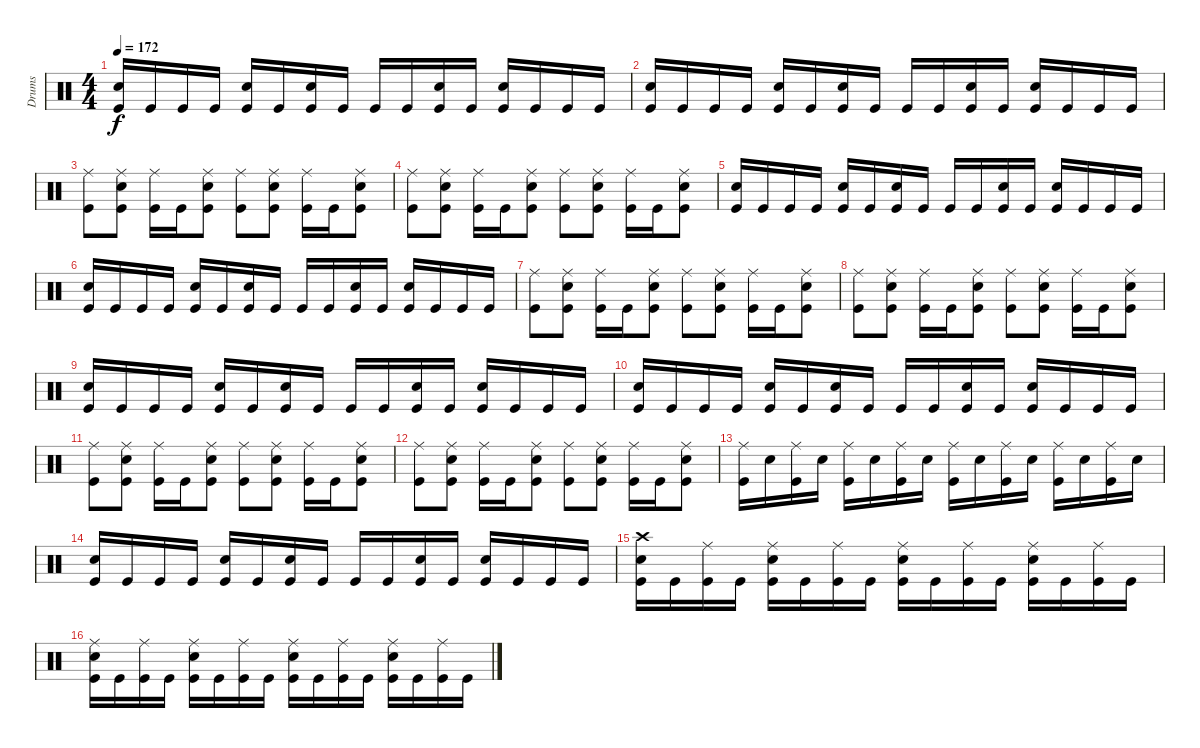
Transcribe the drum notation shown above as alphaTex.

\track ("Drums" "Drums") {instrument percussion}
\staff {score}
\articulation defaults
\ts (4 4)
\tempo 172
\clef neutral
\ks c
("Kick (hit)" "Snare (hit) 2").16{dy f} "Kick (hit)".16 "Kick (hit)".16 "Kick (hit)".16 ("Kick (hit)" "Snare (hit) 2").16 "Kick (hit)".16 ("Kick (hit)" "Snare (hit) 2").16 "Kick (hit)".16 "Kick (hit)".16 "Kick (hit)".16 ("Snare (hit) 2" "Kick (hit)").16 "Kick (hit)".16 ("Kick (hit)" "Snare (hit) 2").16 "Kick (hit)".16 "Kick (hit)".16 "Kick (hit)".16 |
("Kick (hit)" "Snare (hit) 2").16 "Kick (hit)".16 "Kick (hit)".16 "Kick (hit)".16 ("Kick (hit)" "Snare (hit) 2").16 "Kick (hit)".16 ("Kick (hit)" "Snare (hit) 2").16 "Kick (hit)".16 "Kick (hit)".16 "Kick (hit)".16 ("Snare (hit) 2" "Kick (hit)").16 "Kick (hit)".16 ("Kick (hit)" "Snare (hit) 2").16 "Kick (hit)".16 "Kick (hit)".16 "Kick (hit)".16 |
("Kick (hit)" "Ride (middle)").8 ("Kick (hit)" "Snare (hit) 2" "Ride (middle)").8 ("Kick (hit)" "Ride (middle)").16 "Kick (hit)".16 ("Kick (hit)" "Snare (hit) 2" "Ride (middle)").8 ("Kick (hit)" "Ride (middle)").8 ("Kick (hit)" "Snare (hit) 2" "Ride (middle)").8 ("Kick (hit)" "Ride (middle)").16 "Kick (hit)".16 ("Kick (hit)" "Snare (hit) 2" "Ride (middle)").8 |
("Kick (hit)" "Ride (middle)").8 ("Kick (hit)" "Snare (hit) 2" "Ride (middle)").8 ("Kick (hit)" "Ride (middle)").16 "Kick (hit)".16 ("Kick (hit)" "Snare (hit) 2" "Ride (middle)").8 ("Kick (hit)" "Ride (middle)").8 ("Kick (hit)" "Snare (hit) 2" "Ride (middle)").8 ("Kick (hit)" "Ride (middle)").16 "Kick (hit)".16 ("Kick (hit)" "Snare (hit) 2" "Ride (middle)").8 |
("Kick (hit)" "Snare (hit) 2").16 "Kick (hit)".16 "Kick (hit)".16 "Kick (hit)".16 ("Kick (hit)" "Snare (hit) 2").16 "Kick (hit)".16 ("Kick (hit)" "Snare (hit) 2").16 "Kick (hit)".16 "Kick (hit)".16 "Kick (hit)".16 ("Snare (hit) 2" "Kick (hit)").16 "Kick (hit)".16 ("Kick (hit)" "Snare (hit) 2").16 "Kick (hit)".16 "Kick (hit)".16 "Kick (hit)".16 |
("Kick (hit)" "Snare (hit) 2").16 "Kick (hit)".16 "Kick (hit)".16 "Kick (hit)".16 ("Kick (hit)" "Snare (hit) 2").16 "Kick (hit)".16 ("Kick (hit)" "Snare (hit) 2").16 "Kick (hit)".16 "Kick (hit)".16 "Kick (hit)".16 ("Snare (hit) 2" "Kick (hit)").16 "Kick (hit)".16 ("Kick (hit)" "Snare (hit) 2").16 "Kick (hit)".16 "Kick (hit)".16 "Kick (hit)".16 |
("Kick (hit)" "Ride (middle)").8 ("Kick (hit)" "Snare (hit) 2" "Ride (middle)").8 ("Kick (hit)" "Ride (middle)").16 "Kick (hit)".16 ("Kick (hit)" "Snare (hit) 2" "Ride (middle)").8 ("Kick (hit)" "Ride (middle)").8 ("Kick (hit)" "Snare (hit) 2" "Ride (middle)").8 ("Kick (hit)" "Ride (middle)").16 "Kick (hit)".16 ("Kick (hit)" "Snare (hit) 2" "Ride (middle)").8 |
("Kick (hit)" "Ride (middle)").8 ("Kick (hit)" "Snare (hit) 2" "Ride (middle)").8 ("Kick (hit)" "Ride (middle)").16 "Kick (hit)".16 ("Kick (hit)" "Snare (hit) 2" "Ride (middle)").8 ("Kick (hit)" "Ride (middle)").8 ("Kick (hit)" "Snare (hit) 2" "Ride (middle)").8 ("Kick (hit)" "Ride (middle)").16 "Kick (hit)".16 ("Kick (hit)" "Snare (hit) 2" "Ride (middle)").8 |
("Kick (hit)" "Snare (hit) 2").16 "Kick (hit)".16 "Kick (hit)".16 "Kick (hit)".16 ("Kick (hit)" "Snare (hit) 2").16 "Kick (hit)".16 ("Kick (hit)" "Snare (hit) 2").16 "Kick (hit)".16 "Kick (hit)".16 "Kick (hit)".16 ("Snare (hit) 2" "Kick (hit)").16 "Kick (hit)".16 ("Kick (hit)" "Snare (hit) 2").16 "Kick (hit)".16 "Kick (hit)".16 "Kick (hit)".16 |
("Kick (hit)" "Snare (hit) 2").16 "Kick (hit)".16 "Kick (hit)".16 "Kick (hit)".16 ("Kick (hit)" "Snare (hit) 2").16 "Kick (hit)".16 ("Kick (hit)" "Snare (hit) 2").16 "Kick (hit)".16 "Kick (hit)".16 "Kick (hit)".16 ("Snare (hit) 2" "Kick (hit)").16 "Kick (hit)".16 ("Kick (hit)" "Snare (hit) 2").16 "Kick (hit)".16 "Kick (hit)".16 "Kick (hit)".16 |
("Kick (hit)" "Ride (middle)").8 ("Kick (hit)" "Snare (hit) 2" "Ride (middle)").8 ("Kick (hit)" "Ride (middle)").16 "Kick (hit)".16 ("Kick (hit)" "Snare (hit) 2" "Ride (middle)").8 ("Kick (hit)" "Ride (middle)").8 ("Kick (hit)" "Snare (hit) 2" "Ride (middle)").8 ("Kick (hit)" "Ride (middle)").16 "Kick (hit)".16 ("Kick (hit)" "Snare (hit) 2" "Ride (middle)").8 |
("Kick (hit)" "Ride (middle)").8 ("Kick (hit)" "Snare (hit) 2" "Ride (middle)").8 ("Kick (hit)" "Ride (middle)").16 "Kick (hit)".16 ("Kick (hit)" "Snare (hit) 2" "Ride (middle)").8 ("Kick (hit)" "Ride (middle)").8 ("Kick (hit)" "Snare (hit) 2" "Ride (middle)").8 ("Kick (hit)" "Ride (middle)").16 "Kick (hit)".16 ("Kick (hit)" "Snare (hit) 2" "Ride (middle)").8 |
("Kick (hit)" "Ride (middle)").16 "Snare (hit) 2".16 ("Kick (hit)" "Ride (middle)").16 "Snare (hit) 2".16 ("Kick (hit)" "Ride (middle)").16 "Snare (hit) 2".16 ("Kick (hit)" "Ride (middle)").16 "Snare (hit) 2".16 ("Kick (hit)" "Ride (middle)").16 "Snare (hit) 2".16 ("Kick (hit)" "Ride (middle)").16 "Snare (hit) 2".16 ("Kick (hit)" "Ride (middle)").16 "Snare (hit) 2".16 ("Kick (hit)" "Ride (middle)").16 "Snare (hit) 2".16 |
("Kick (hit)" "Snare (hit) 2").16 "Kick (hit)".16 "Kick (hit)".16 "Kick (hit)".16 ("Kick (hit)" "Snare (hit) 2").16 "Kick (hit)".16 ("Kick (hit)" "Snare (hit) 2").16 "Kick (hit)".16 "Kick (hit)".16 "Kick (hit)".16 ("Snare (hit) 2" "Kick (hit)").16 "Kick (hit)".16 ("Kick (hit)" "Snare (hit) 2").16 "Kick (hit)".16 "Kick (hit)".16 "Kick (hit)".16 |
("Kick (hit)" "Snare (hit) 2" "Crash high (hit)").16 "Kick (hit)".16 ("Kick (hit)" "Ride (middle)").16 "Kick (hit)".16 ("Kick (hit)" "Snare (hit) 2" "Ride (middle)").16 "Kick (hit)".16 ("Kick (hit)" "Ride (middle)").16 "Kick (hit)".16 ("Kick (hit)" "Snare (hit) 2" "Ride (middle)").16 "Kick (hit)".16 ("Kick (hit)" "Ride (middle)").16 "Kick (hit)".16 ("Kick (hit)" "Snare (hit) 2" "Ride (middle)").16 "Kick (hit)".16 ("Kick (hit)" "Ride (middle)").16 "Kick (hit)".16 |
("Kick (hit)" "Snare (hit) 2" "Ride (middle)").16 "Kick (hit)".16 ("Kick (hit)" "Ride (middle)").16 "Kick (hit)".16 ("Kick (hit)" "Snare (hit) 2" "Ride (middle)").16 "Kick (hit)".16 ("Kick (hit)" "Ride (middle)").16 "Kick (hit)".16 ("Kick (hit)" "Snare (hit) 2" "Ride (middle)").16 "Kick (hit)".16 ("Kick (hit)" "Ride (middle)").16 "Kick (hit)".16 ("Kick (hit)" "Snare (hit) 2" "Ride (middle)").16 "Kick (hit)".16 ("Kick (hit)" "Ride (middle)").16 "Kick (hit)".16
